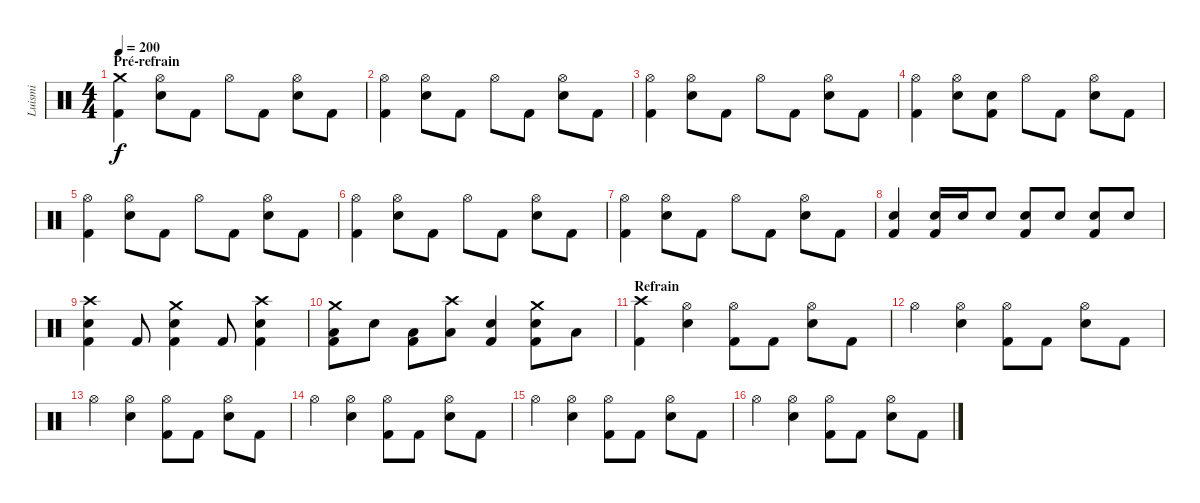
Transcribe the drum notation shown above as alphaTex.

\track ("Luismi" "Luismi") {instrument percussion}
\staff {score}
\articulation defaults
\ts (4 4)
\section ("" "Pré-refrain")
\tempo 200
\clef neutral
\ks c
("Crash medium (hit)" "Kick (hit) 2").4{dy f} ("Hi-Hat (open)" "Snare (hit) 2").8 "Kick (hit) 2".8 "Hi-Hat (open)".8 "Kick (hit) 2".8 ("Hi-Hat (open)" "Snare (hit) 2").8 "Kick (hit) 2".8 |
("Hi-Hat (open)" "Kick (hit) 2").4 ("Hi-Hat (open)" "Snare (hit) 2").8 "Kick (hit) 2".8 "Hi-Hat (open)".8 "Kick (hit) 2".8 ("Hi-Hat (open)" "Snare (hit) 2").8 "Kick (hit) 2".8 |
("Hi-Hat (open)" "Kick (hit) 2").4 ("Hi-Hat (open)" "Snare (hit) 2").8 "Kick (hit) 2".8 "Hi-Hat (open)".8 "Kick (hit) 2".8 ("Hi-Hat (open)" "Snare (hit) 2").8 "Kick (hit) 2".8 |
("Hi-Hat (open)" "Kick (hit) 2").4 ("Hi-Hat (open)" "Snare (hit) 2").8 ("Snare (hit) 2" "Kick (hit) 2").8 "Hi-Hat (open)".8 "Kick (hit) 2".8 ("Hi-Hat (open)" "Snare (hit) 2").8 "Kick (hit) 2".8 |
("Hi-Hat (open)" "Kick (hit) 2").4 ("Hi-Hat (open)" "Snare (hit) 2").8 "Kick (hit) 2".8 "Hi-Hat (open)".8 "Kick (hit) 2".8 ("Hi-Hat (open)" "Snare (hit) 2").8 "Kick (hit) 2".8 |
("Hi-Hat (open)" "Kick (hit) 2").4 ("Hi-Hat (open)" "Snare (hit) 2").8 "Kick (hit) 2".8 "Hi-Hat (open)".8 "Kick (hit) 2".8 ("Hi-Hat (open)" "Snare (hit) 2").8 "Kick (hit) 2".8 |
("Hi-Hat (open)" "Kick (hit) 2").4 ("Hi-Hat (open)" "Snare (hit) 2").8 "Kick (hit) 2".8 "Hi-Hat (open)".8 "Kick (hit) 2".8 ("Hi-Hat (open)" "Snare (hit) 2").8 "Kick (hit) 2".8 |
("Snare (hit) 2" "Kick (hit) 2").4 ("Snare (hit) 2" "Kick (hit) 2").16 "Snare (hit) 2".16 "Snare (hit) 2".8 ("Snare (hit) 2" "Kick (hit) 2").8 "Snare (hit) 2".8 ("Snare (hit) 2" "Kick (hit) 2").8 "Snare (hit) 2".8 |
("Crash high (hit)" "Snare (hit) 2" "Kick (hit) 2").4 "Kick (hit) 2".8 ("Crash medium (hit)" "Snare (hit) 2" "Kick (hit) 2").4 "Kick (hit) 2".8 ("Crash high (hit)" "Snare (hit) 2" "Kick (hit) 2").4 |
("Crash medium (hit)" "Low Floor Tom (hit)" "Kick (hit) 2").8 "Snare (hit) 2".8 ("Low Tom (hit)" "Kick (hit) 2").8 ("Crash high (hit)" "Low Floor Tom (hit)").8 ("Snare (hit) 2" "Kick (hit) 2").4 ("Crash medium (hit)" "Snare (hit) 2" "Kick (hit) 2").8 "Low Floor Tom (hit)".8 |
\section ("" "Refrain")
("Crash high (hit)" "Kick (hit) 2").4 ("Hi-Hat (open)" "Snare (hit) 2").4 ("Hi-Hat (open)" "Kick (hit) 2").8 "Kick (hit) 2".8 ("Hi-Hat (open)" "Snare (hit) 2").8 "Kick (hit) 2".8 |
"Hi-Hat (open)".4 ("Hi-Hat (open)" "Snare (hit) 2").4 ("Hi-Hat (open)" "Kick (hit) 2").8 "Kick (hit) 2".8 ("Hi-Hat (open)" "Snare (hit) 2").8 "Kick (hit) 2".8 |
"Hi-Hat (open)".4 ("Hi-Hat (open)" "Snare (hit) 2").4 ("Hi-Hat (open)" "Kick (hit) 2").8 "Kick (hit) 2".8 ("Hi-Hat (open)" "Snare (hit) 2").8 "Kick (hit) 2".8 |
"Hi-Hat (open)".4 ("Hi-Hat (open)" "Snare (hit) 2").4 ("Hi-Hat (open)" "Kick (hit) 2").8 "Kick (hit) 2".8 ("Hi-Hat (open)" "Snare (hit) 2").8 "Kick (hit) 2".8 |
"Hi-Hat (open)".4 ("Hi-Hat (open)" "Snare (hit) 2").4 ("Hi-Hat (open)" "Kick (hit) 2").8 "Kick (hit) 2".8 ("Hi-Hat (open)" "Snare (hit) 2").8 "Kick (hit) 2".8 |
"Hi-Hat (open)".4 ("Hi-Hat (open)" "Snare (hit) 2").4 ("Hi-Hat (open)" "Kick (hit) 2").8 "Kick (hit) 2".8 ("Hi-Hat (open)" "Snare (hit) 2").8 "Kick (hit) 2".8
